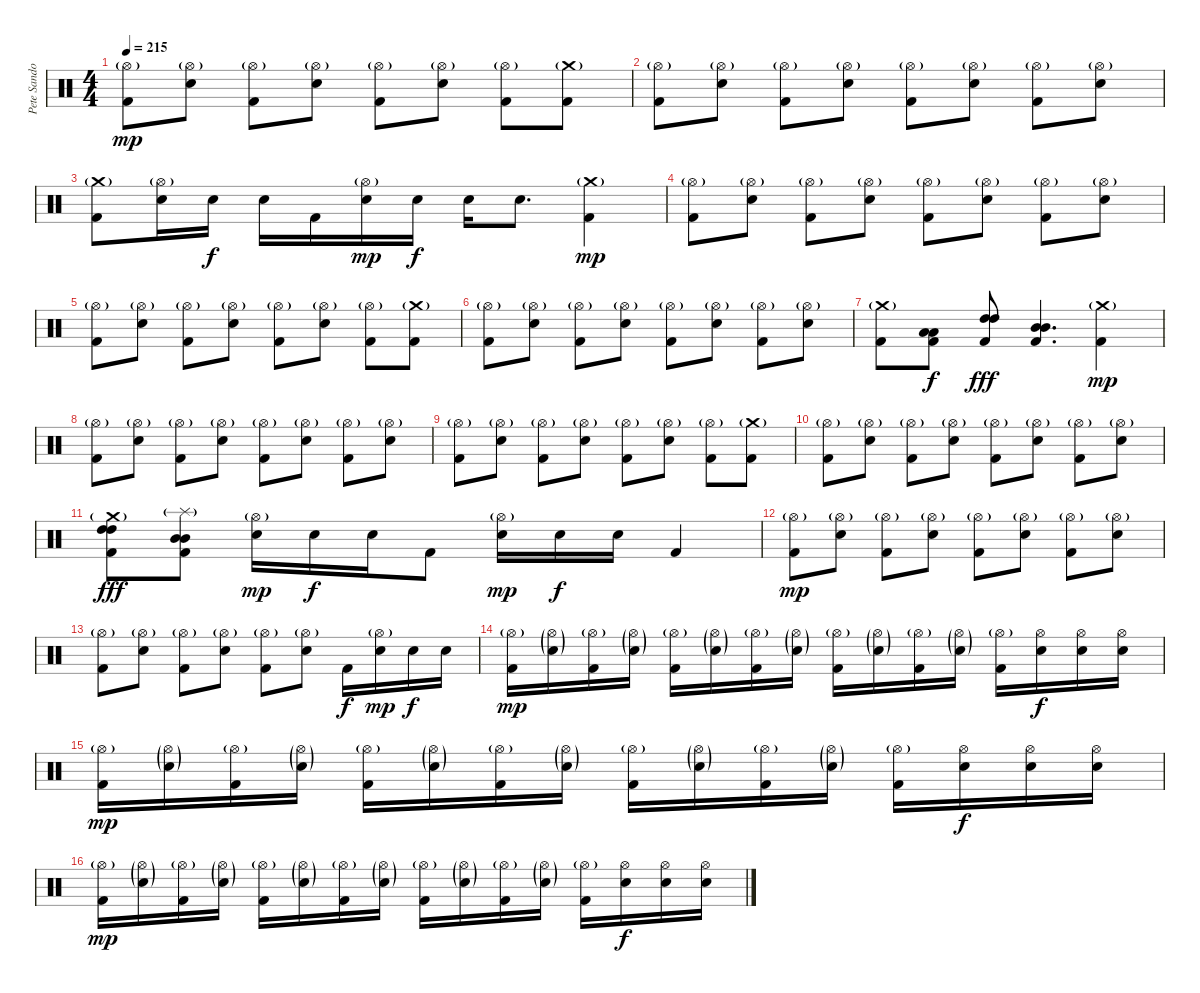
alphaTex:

\track ("Pete Sandoval" "Pete Sando") {instrument percussion}
\staff {score}
\articulation defaults
\ts (4 4)
\tempo 215
\clef neutral
\ks c
("Hi-Hat (open)"{g} "Kick (hit) 2").8{dy mp} ("Hi-Hat (open)"{g} "Snare (hit) 2").8 ("Hi-Hat (open)"{g} "Kick (hit) 2").8 ("Hi-Hat (open)"{g} "Snare (hit) 2").8 ("Hi-Hat (open)"{g} "Kick (hit) 2").8 ("Hi-Hat (open)"{g} "Snare (hit) 2").8 ("Hi-Hat (open)"{g} "Kick (hit) 2").8 ("Crash medium (hit)"{g} "Kick (hit) 2").8 |
("Hi-Hat (open)"{g} "Kick (hit) 2").8 ("Hi-Hat (open)"{g} "Snare (hit) 2").8 ("Hi-Hat (open)"{g} "Kick (hit) 2").8 ("Hi-Hat (open)"{g} "Snare (hit) 2").8 ("Hi-Hat (open)"{g} "Kick (hit) 2").8 ("Hi-Hat (open)"{g} "Snare (hit) 2").8 ("Hi-Hat (open)"{g} "Kick (hit) 2").8 ("Hi-Hat (open)"{g} "Snare (hit) 2").8 |
("Crash medium (hit)"{g} "Kick (hit) 2").8 ("Hi-Hat (open)"{g} "Snare (hit) 2").16 "Snare (hit) 2".16{dy f} "Snare (hit) 2".16 "Kick (hit) 2".16 ("Hi-Hat (open)"{g} "Snare (hit) 2").16{dy mp} "Snare (hit) 2".16{dy f} "Snare (hit) 2".16 "Snare (hit) 2".8{d} ("Crash medium (hit)"{g} "Kick (hit) 2").4{dy mp} |
("Hi-Hat (open)"{g} "Kick (hit) 2").8 ("Hi-Hat (open)"{g} "Snare (hit) 2").8 ("Hi-Hat (open)"{g} "Kick (hit) 2").8 ("Hi-Hat (open)"{g} "Snare (hit) 2").8 ("Hi-Hat (open)"{g} "Kick (hit) 2").8 ("Hi-Hat (open)"{g} "Snare (hit) 2").8 ("Hi-Hat (open)"{g} "Kick (hit) 2").8 ("Hi-Hat (open)"{g} "Snare (hit) 2").8 |
("Hi-Hat (open)"{g} "Kick (hit) 2").8 ("Hi-Hat (open)"{g} "Snare (hit) 2").8 ("Hi-Hat (open)"{g} "Kick (hit) 2").8 ("Hi-Hat (open)"{g} "Snare (hit) 2").8 ("Hi-Hat (open)"{g} "Kick (hit) 2").8 ("Hi-Hat (open)"{g} "Snare (hit) 2").8 ("Hi-Hat (open)"{g} "Kick (hit) 2").8 ("Crash medium (hit)"{g} "Kick (hit) 2").8 |
("Hi-Hat (open)"{g} "Kick (hit) 2").8 ("Hi-Hat (open)"{g} "Snare (hit) 2").8 ("Hi-Hat (open)"{g} "Kick (hit) 2").8 ("Hi-Hat (open)"{g} "Snare (hit) 2").8 ("Hi-Hat (open)"{g} "Kick (hit) 2").8 ("Hi-Hat (open)"{g} "Snare (hit) 2").8 ("Hi-Hat (open)"{g} "Kick (hit) 2").8 ("Hi-Hat (open)"{g} "Snare (hit) 2").8 |
("Crash medium (hit)"{g} "Kick (hit) 2").8 ("Low Floor Tom (hit)" "Low Floor Tom (hit)" "Kick (hit) 2").8{dy f} ("High Tom (hit)" "High Tom (hit)" "Kick (hit) 2").8{dy fff} ("Mid Tom (hit)" "Mid Tom (hit)" "Kick (hit) 2").4{d} ("Crash medium (hit)"{g} "Kick (hit) 2").4{dy mp} |
("Hi-Hat (open)"{g} "Kick (hit) 2").8 ("Hi-Hat (open)"{g} "Snare (hit) 2").8 ("Hi-Hat (open)"{g} "Kick (hit) 2").8 ("Hi-Hat (open)"{g} "Snare (hit) 2").8 ("Hi-Hat (open)"{g} "Kick (hit) 2").8 ("Hi-Hat (open)"{g} "Snare (hit) 2").8 ("Hi-Hat (open)"{g} "Kick (hit) 2").8 ("Hi-Hat (open)"{g} "Snare (hit) 2").8 |
("Hi-Hat (open)"{g} "Kick (hit) 2").8 ("Hi-Hat (open)"{g} "Snare (hit) 2").8 ("Hi-Hat (open)"{g} "Kick (hit) 2").8 ("Hi-Hat (open)"{g} "Snare (hit) 2").8 ("Hi-Hat (open)"{g} "Kick (hit) 2").8 ("Hi-Hat (open)"{g} "Snare (hit) 2").8 ("Hi-Hat (open)"{g} "Kick (hit) 2").8 ("Crash medium (hit)"{g} "Kick (hit) 2").8 |
("Hi-Hat (open)"{g} "Kick (hit) 2").8 ("Hi-Hat (open)"{g} "Snare (hit) 2").8 ("Hi-Hat (open)"{g} "Kick (hit) 2").8 ("Hi-Hat (open)"{g} "Snare (hit) 2").8 ("Hi-Hat (open)"{g} "Kick (hit) 2").8 ("Hi-Hat (open)"{g} "Snare (hit) 2").8 ("Hi-Hat (open)"{g} "Kick (hit) 2").8 ("Hi-Hat (open)"{g} "Snare (hit) 2").8 |
("Crash medium (hit)"{g} "High Tom (hit)" "High Tom (hit)" "Kick (hit) 2").8{dy fff} ("Splash (hit)"{g} "Mid Tom (hit)" "Mid Tom (hit)" "Kick (hit) 2").8 ("Hi-Hat (open)"{g} "Snare (hit) 2").16{dy mp} "Snare (hit) 2".16{dy f} "Snare (hit) 2".16 "Kick (hit) 2".8 ("Hi-Hat (open)"{g} "Snare (hit) 2").16{dy mp} "Snare (hit) 2".16{dy f} "Snare (hit) 2".16 "Kick (hit) 2".4 |
("Hi-Hat (open)"{g} "Kick (hit) 2").8{dy mp} ("Hi-Hat (open)"{g} "Snare (hit) 2").8 ("Hi-Hat (open)"{g} "Kick (hit) 2").8 ("Hi-Hat (open)"{g} "Snare (hit) 2").8 ("Hi-Hat (open)"{g} "Kick (hit) 2").8 ("Hi-Hat (open)"{g} "Snare (hit) 2").8 ("Hi-Hat (open)"{g} "Kick (hit) 2").8 ("Hi-Hat (open)"{g} "Snare (hit) 2").8 |
("Hi-Hat (open)"{g} "Kick (hit) 2").8 ("Hi-Hat (open)"{g} "Snare (hit) 2").8 ("Hi-Hat (open)"{g} "Kick (hit) 2").8 ("Hi-Hat (open)"{g} "Snare (hit) 2").8 ("Hi-Hat (open)"{g} "Kick (hit) 2").8 ("Hi-Hat (open)"{g} "Snare (hit) 2").8 "Kick (hit) 2".16{dy f} ("Hi-Hat (open)"{g} "Snare (hit) 2").16{dy mp} "Snare (hit) 2".16{dy f} "Snare (hit) 2".16 |
("Hi-Hat (open)"{g} "Kick (hit) 2").16{dy mp} ("Hi-Hat (open)"{g} "Snare (hit) 2"{g}).16 ("Hi-Hat (open)"{g} "Kick (hit) 2").16 ("Hi-Hat (open)"{g} "Snare (hit) 2"{g}).16 ("Hi-Hat (open)"{g} "Kick (hit) 2").16 ("Hi-Hat (open)"{g} "Snare (hit) 2"{g}).16 ("Hi-Hat (open)"{g} "Kick (hit) 2").16 ("Hi-Hat (open)"{g} "Snare (hit) 2"{g}).16 ("Hi-Hat (open)"{g} "Kick (hit) 2").16 ("Hi-Hat (open)"{g} "Snare (hit) 2"{g}).16 ("Hi-Hat (open)"{g} "Kick (hit) 2").16 ("Hi-Hat (open)"{g} "Snare (hit) 2"{g}).16 ("Hi-Hat (open)"{g} "Kick (hit) 2").16 ("Hi-Hat (open)" "Snare (hit) 2").16{dy f} ("Hi-Hat (open)" "Snare (hit) 2").16 ("Hi-Hat (open)" "Snare (hit) 2").16 |
("Hi-Hat (open)"{g} "Kick (hit) 2").16{dy mp} ("Hi-Hat (open)"{g} "Snare (hit) 2"{g}).16 ("Hi-Hat (open)"{g} "Kick (hit) 2").16 ("Hi-Hat (open)"{g} "Snare (hit) 2"{g}).16 ("Hi-Hat (open)"{g} "Kick (hit) 2").16 ("Hi-Hat (open)"{g} "Snare (hit) 2"{g}).16 ("Hi-Hat (open)"{g} "Kick (hit) 2").16 ("Hi-Hat (open)"{g} "Snare (hit) 2"{g}).16 ("Hi-Hat (open)"{g} "Kick (hit) 2").16 ("Hi-Hat (open)"{g} "Snare (hit) 2"{g}).16 ("Hi-Hat (open)"{g} "Kick (hit) 2").16 ("Hi-Hat (open)"{g} "Snare (hit) 2"{g}).16 ("Hi-Hat (open)"{g} "Kick (hit) 2").16 ("Hi-Hat (open)" "Snare (hit) 2").16{dy f} ("Hi-Hat (open)" "Snare (hit) 2").16 ("Hi-Hat (open)" "Snare (hit) 2").16 |
("Hi-Hat (open)"{g} "Kick (hit) 2").16{dy mp} ("Hi-Hat (open)"{g} "Snare (hit) 2"{g}).16 ("Hi-Hat (open)"{g} "Kick (hit) 2").16 ("Hi-Hat (open)"{g} "Snare (hit) 2"{g}).16 ("Hi-Hat (open)"{g} "Kick (hit) 2").16 ("Hi-Hat (open)"{g} "Snare (hit) 2"{g}).16 ("Hi-Hat (open)"{g} "Kick (hit) 2").16 ("Hi-Hat (open)"{g} "Snare (hit) 2"{g}).16 ("Hi-Hat (open)"{g} "Kick (hit) 2").16 ("Hi-Hat (open)"{g} "Snare (hit) 2"{g}).16 ("Hi-Hat (open)"{g} "Kick (hit) 2").16 ("Hi-Hat (open)"{g} "Snare (hit) 2"{g}).16 ("Hi-Hat (open)"{g} "Kick (hit) 2").16 ("Hi-Hat (open)" "Snare (hit) 2").16{dy f} ("Hi-Hat (open)" "Snare (hit) 2").16 ("Hi-Hat (open)" "Snare (hit) 2").16
